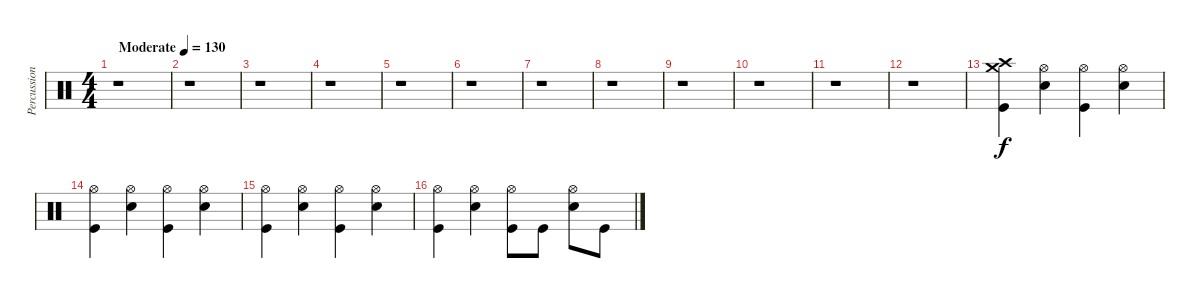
\track ("Percussions" "Percussion") {instrument percussion}
\staff {score}
\articulation defaults
\ts (4 4)
\tempo (130 "Moderate")
\clef neutral
\ks c
r.1{dy f} |
r.1 |
r.1 |
r.1 |
r.1 |
r.1 |
r.1 |
r.1 |
r.1 |
r.1 |
r.1 |
r.1 |
("Crash medium (hit)" "Crash high (hit)" "Kick (hit)").4 ("Hi-Hat (open)" "Electric Snare (hit)").4 ("Hi-Hat (open)" "Kick (hit)").4 ("Hi-Hat (open)" "Electric Snare (hit)").4 |
("Hi-Hat (open)" "Kick (hit)").4 ("Hi-Hat (open)" "Electric Snare (hit)").4 ("Hi-Hat (open)" "Kick (hit)").4 ("Hi-Hat (open)" "Electric Snare (hit)").4 |
("Hi-Hat (open)" "Kick (hit)").4 ("Hi-Hat (open)" "Electric Snare (hit)").4 ("Hi-Hat (open)" "Kick (hit)").4 ("Hi-Hat (open)" "Electric Snare (hit)").4 |
("Hi-Hat (open)" "Kick (hit)").4 ("Hi-Hat (open)" "Electric Snare (hit)").4 ("Hi-Hat (open)" "Kick (hit)").8 "Kick (hit)".8 ("Hi-Hat (open)" "Electric Snare (hit)").8 "Kick (hit)".8
